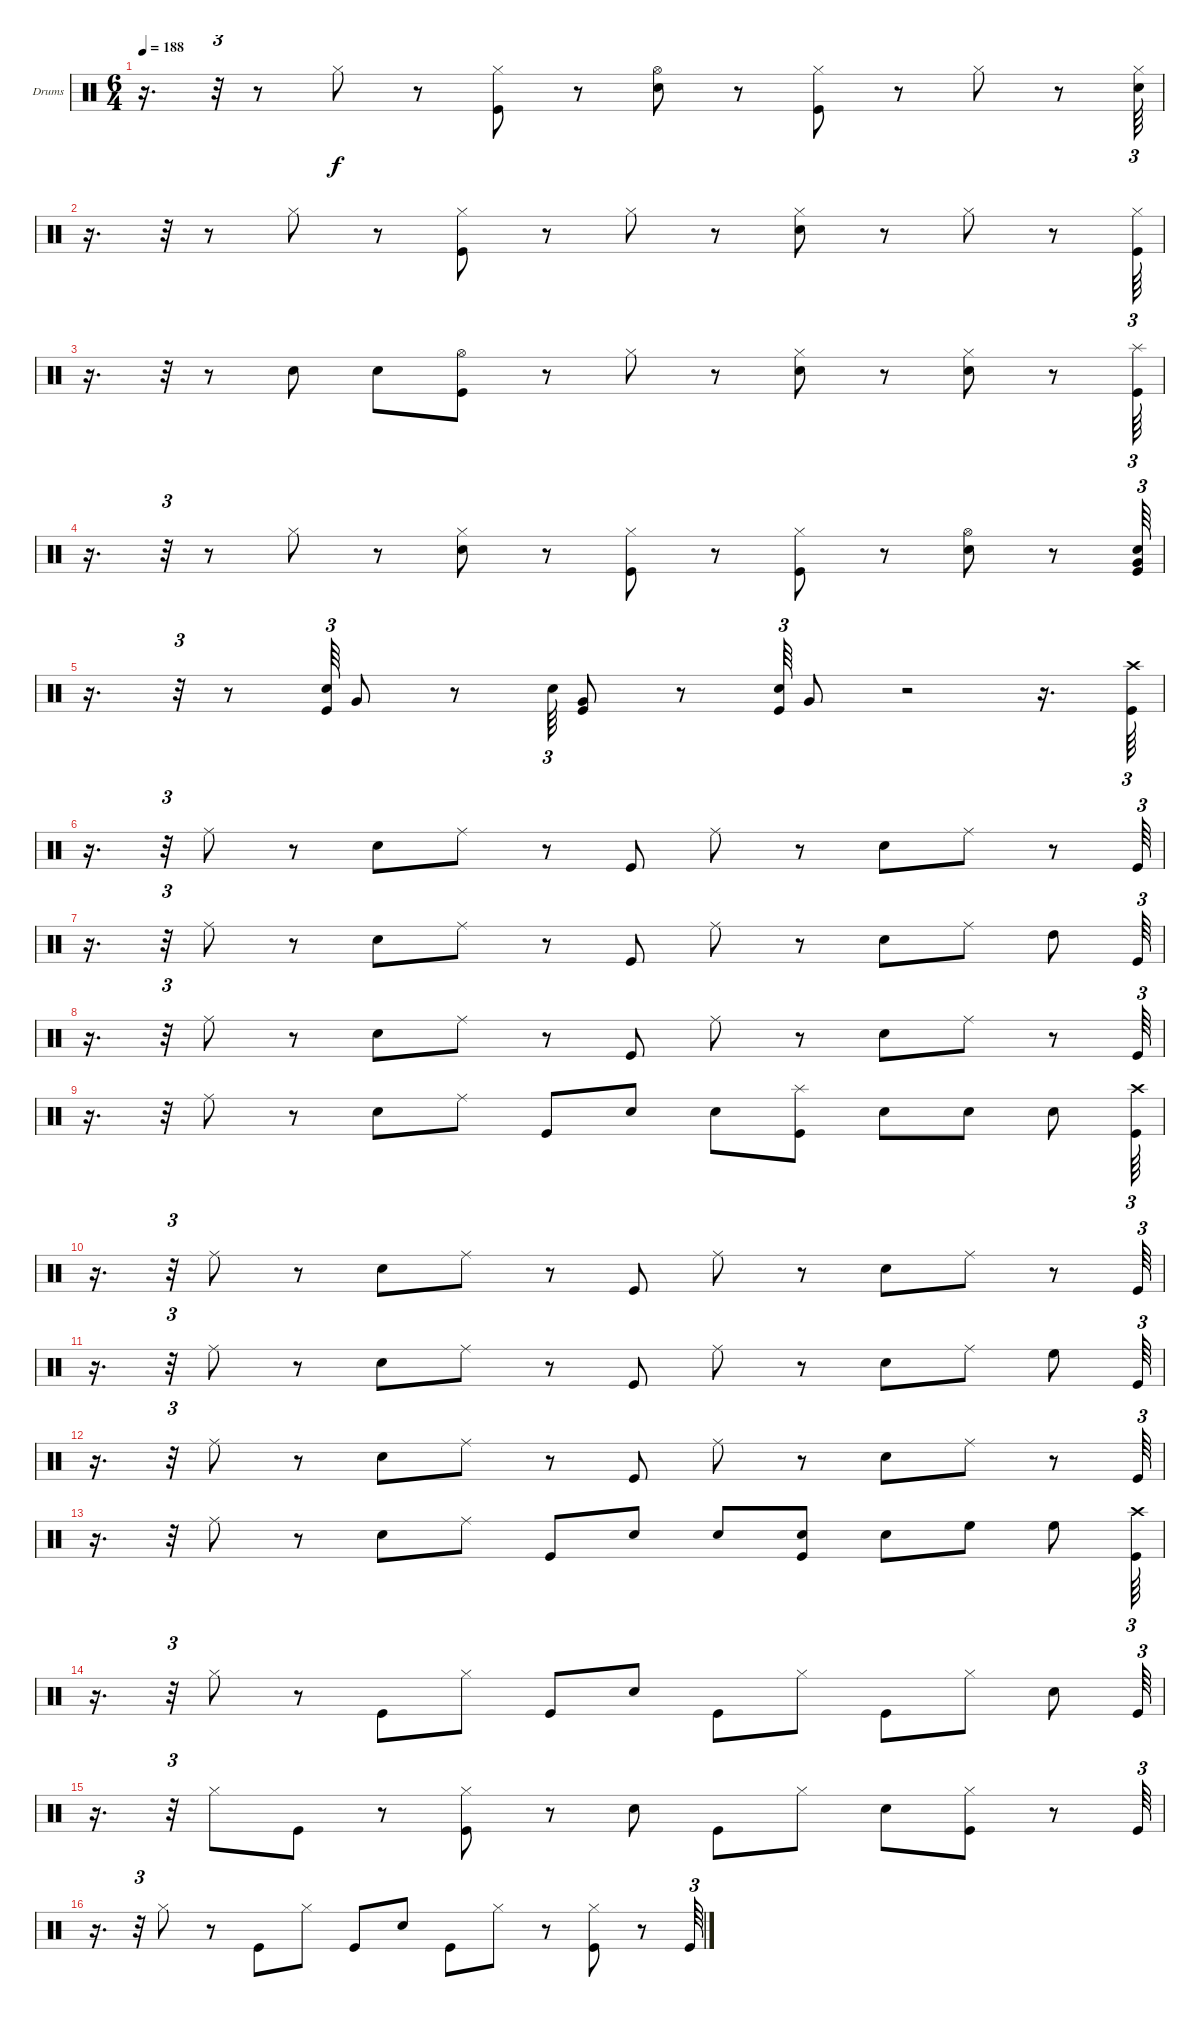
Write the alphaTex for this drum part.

\bracketExtendMode groupsimilarinstruments
\firstSystemTrackNameOrientation horizontal
\otherSystemsTrackNameOrientation horizontal
\track ("Drumkit" "Drums") {instrument percussion}
\staff {score}
\articulation defaults
\ts (6 4)
\tempo 188
\clef neutral
\ks c
r.16{d dy f} r.32{tu (3 2)} r.8 "Hi-Hat (closed)".8 r.8 ("Hi-Hat (closed)" "Kick (hit)").8 r.8 ("Snare (hit) 2" "Hi-Hat (open)").8 r.8 ("Hi-Hat (closed)" "Kick (hit)").8 r.8 "Hi-Hat (closed)".8 r.8 ("Hi-Hat (closed)" "Snare (hit) 2").64{tu (3 2)} |
r.16{d} r.32{tu (3 2)} r.8 "Hi-Hat (closed)".8 r.8 ("Hi-Hat (closed)" "Kick (hit)").8 r.8 "Hi-Hat (closed)".8 r.8 ("Hi-Hat (closed)" "Snare (hit) 2").8 r.8 "Hi-Hat (closed)".8 r.8 ("Hi-Hat (closed)" "Kick (hit)").64{tu (3 2)} |
r.16{d} r.32{tu (3 2)} r.8 "Snare (hit) 2".8 "Snare (hit) 2".8 ("Hi-Hat (open)" "Kick (hit)").8 r.8 "Hi-Hat (closed)".8 r.8 ("Snare (hit) 2" "Hi-Hat (closed)").8 r.8 ("Hi-Hat (closed)" "Snare (hit) 2").8 r.8 ("Kick (hit)" "Splash (hit)").64{tu (3 2)} |
r.16{d} r.32{tu (3 2)} r.8 "Hi-Hat (closed)".8 r.8 ("Snare (hit) 2" "Hi-Hat (closed)").8 r.8 ("Kick (hit)" "Hi-Hat (closed)").8 r.8 ("Kick (hit)" "Hi-Hat (closed)").8 r.8 ("Snare (hit) 2" "Hi-Hat (open)").8 r.8 ("Very Low Tom (hit)" "Snare (hit) 2" "Kick (hit)").64{tu (3 2)} |
r.16{d} r.32{tu (3 2)} r.8 ("Kick (hit)" "Snare (hit) 2").64{tu (3 2)} "Very Low Tom (hit)".8 r.8 "Snare (hit) 2".64{tu (3 2)} ("Kick (hit)" "Very Low Tom (hit)").8 r.8 ("Kick (hit)" "Snare (hit) 2").64{tu (3 2)} "Very Low Tom (hit)".8 r.2 r.16{d} ("Crash high (hit)" "Kick (hit)").64{tu (3 2)} |
r.16{d} r.32{tu (3 2)} "Ride (middle)".8 r.8 "Snare (hit) 2".8 "Ride (middle)".8 r.8 "Kick (hit)".8 "Ride (middle)".8 r.8 "Snare (hit) 2".8 "Ride (middle)".8 r.8 "Kick (hit)".64{tu (3 2)} |
r.16{d} r.32{tu (3 2)} "Ride (middle)".8 r.8 "Snare (hit) 2".8 "Ride (middle)".8 r.8 "Kick (hit)".8 "Ride (middle)".8 r.8 "Snare (hit) 2".8 "Ride (middle)".8 "High Tom (hit)".8 "Kick (hit)".64{tu (3 2)} |
r.16{d} r.32{tu (3 2)} "Ride (middle)".8 r.8 "Snare (hit) 2".8 "Ride (middle)".8 r.8 "Kick (hit)".8 "Ride (middle)".8 r.8 "Snare (hit) 2".8 "Ride (middle)".8 r.8 "Kick (hit)".64{tu (3 2)} |
r.16{d} r.32{tu (3 2)} "Ride (middle)".8 r.8 "Snare (hit) 2".8 "Ride (middle)".8 "Kick (hit)".8 "Snare (hit) 2".8 "Snare (hit) 2".8 ("Kick (hit)" "Splash (hit)").8 "Snare (hit) 2".8 "Snare (hit) 2".8 "Snare (hit) 2".8 ("Crash high (hit)" "Kick (hit)").64{tu (3 2)} |
r.16{d} r.32{tu (3 2)} "Ride (middle)".8 r.8 "Snare (hit) 2".8 "Ride (middle)".8 r.8 "Kick (hit)".8 "Ride (middle)".8 r.8 "Snare (hit) 2".8 "Ride (middle)".8 r.8 "Kick (hit)".64{tu (3 2)} |
r.16{d} r.32{tu (3 2)} "Ride (middle)".8 r.8 "Snare (hit) 2".8 "Ride (middle)".8 r.8 "Kick (hit)".8 "Ride (middle)".8 r.8 "Snare (hit) 2".8 "Ride (middle)".8 "High Floor Tom (hit)".8 "Kick (hit)".64{tu (3 2)} |
r.16{d} r.32{tu (3 2)} "Ride (middle)".8 r.8 "Snare (hit) 2".8 "Ride (middle)".8 r.8 "Kick (hit)".8 "Ride (middle)".8 r.8 "Snare (hit) 2".8 "Ride (middle)".8 r.8 "Kick (hit)".64{tu (3 2)} |
r.16{d} r.32{tu (3 2)} "Ride (middle)".8 r.8 "Snare (hit) 2".8 "Ride (middle)".8 "Kick (hit)".8 "Snare (hit) 2".8 "Snare (hit) 2".8 ("Kick (hit)" "Snare (hit) 2").8 "Snare (hit) 2".8 "High Floor Tom (hit)".8 "High Floor Tom (hit)".8 ("Kick (hit)" "Crash high (hit)").64{tu (3 2)} |
r.16{d} r.32{tu (3 2)} "Hi-Hat (closed)".8 r.8 "Kick (hit)".8 "Hi-Hat (closed)".8 "Kick (hit)".8 "Snare (hit) 2".8 "Kick (hit)".8 "Hi-Hat (closed)".8 "Kick (hit)".8 "Hi-Hat (closed)".8 "Snare (hit) 2".8 "Kick (hit)".64{tu (3 2)} |
r.16{d} r.32{tu (3 2)} "Hi-Hat (closed)".8 "Kick (hit)".8 r.8 ("Hi-Hat (closed)" "Kick (hit)").8 r.8 "Snare (hit) 2".8 "Kick (hit)".8 "Hi-Hat (closed)".8 "Snare (hit) 2".8 ("Kick (hit)" "Hi-Hat (closed)").8 r.8 "Kick (hit)".64{tu (3 2)} |
r.16{d} r.32{tu (3 2)} "Hi-Hat (closed)".8 r.8 "Kick (hit)".8 "Hi-Hat (closed)".8 "Kick (hit)".8 "Snare (hit) 2".8 "Kick (hit)".8 "Hi-Hat (closed)".8 r.8 ("Kick (hit)" "Hi-Hat (closed)").8 r.8 "Kick (hit)".64{tu (3 2)}
